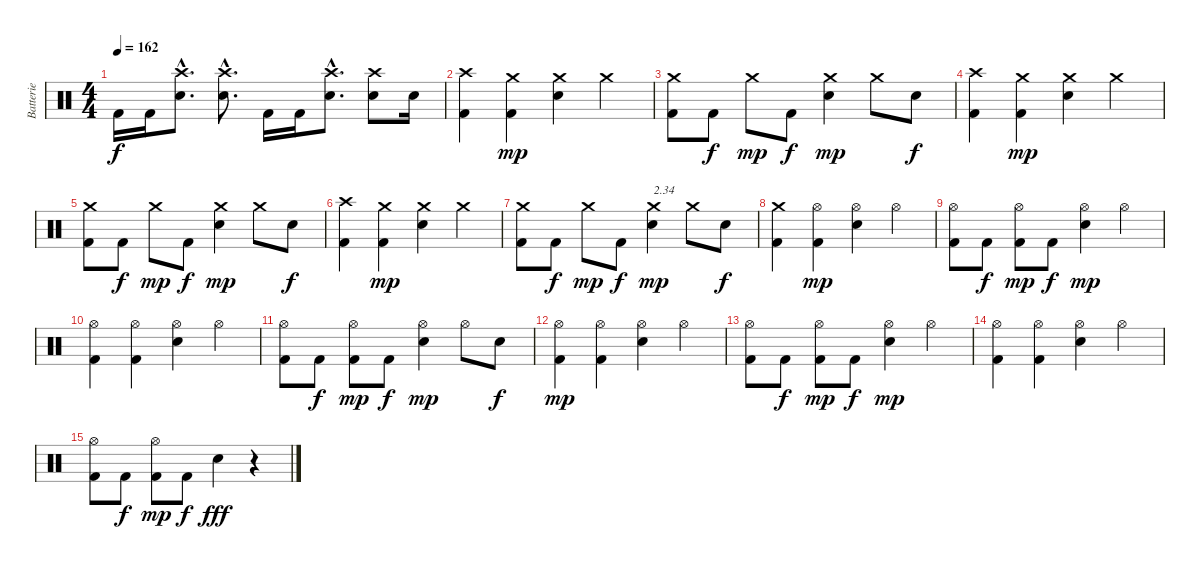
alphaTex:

\track ("Batterie" "Batterie") {instrument percussion}
\staff {score}
\articulation defaults
\ts (4 4)
\tempo 162
\clef neutral
\ks c "Kick (hit) 2".16{dy f} "Kick (hit) 2".16
("Electric Snare (hit)"{hac} "Crash high (hit)"{hac}).8{d} ("Electric Snare (hit)"{hac} "Crash high (hit)"{hac}).8{d} "Kick (hit) 2".16 "Kick (hit) 2".16 ("Electric Snare (hit)"{hac} "Crash high (hit)"{hac}).8{d} ("Electric Snare (hit)" "Crash high (hit)").8 "Electric Snare (hit)".16 |
("Kick (hit) 2" "Crash high (hit)").4 ("Kick (hit) 2" "Crash medium (hit)").4{dy mp} ("Electric Snare (hit)" "Crash medium (hit)").4 "Crash medium (hit)".4 |
("Kick (hit) 2" "Crash medium (hit)").8 "Kick (hit) 2".8{dy f} "Crash medium (hit)".8{dy mp} "Kick (hit) 2".8{dy f} ("Electric Snare (hit)" "Crash medium (hit)").4{dy mp} "Crash medium (hit)".8 "Electric Snare (hit)".8{dy f} |
("Kick (hit) 2" "Crash high (hit)").4 ("Kick (hit) 2" "Crash medium (hit)").4{dy mp} ("Electric Snare (hit)" "Crash medium (hit)").4 "Crash medium (hit)".4 |
("Kick (hit) 2" "Crash medium (hit)").8 "Kick (hit) 2".8{dy f} "Crash medium (hit)".8{dy mp} "Kick (hit) 2".8{dy f} ("Electric Snare (hit)" "Crash medium (hit)").4{dy mp} "Crash medium (hit)".8 "Electric Snare (hit)".8{dy f} |
("Kick (hit) 2" "Crash high (hit)").4 ("Kick (hit) 2" "Crash medium (hit)").4{dy mp} ("Electric Snare (hit)" "Crash medium (hit)").4 "Crash medium (hit)".4 |
("Kick (hit) 2" "Crash medium (hit)").8 "Kick (hit) 2".8{dy f} "Crash medium (hit)".8{dy mp} "Kick (hit) 2".8{dy f} ("Electric Snare (hit)" "Crash medium (hit)").4{txt "2.34" dy mp} "Crash medium (hit)".8 "Electric Snare (hit)".8{dy f} |
("Kick (hit) 2" "Crash medium (hit)").4 ("Kick (hit) 2" "Hi-Hat (open)").4{dy mp} ("Electric Snare (hit)" "Hi-Hat (open)").4 "Hi-Hat (open)".4 |
("Kick (hit) 2" "Hi-Hat (open)").8 "Kick (hit) 2".8{dy f} ("Kick (hit) 2" "Hi-Hat (open)").8{dy mp} "Kick (hit) 2".8{dy f} ("Electric Snare (hit)" "Hi-Hat (open)").4{dy mp} "Hi-Hat (open)".4 |
("Kick (hit) 2" "Hi-Hat (open)").4 ("Kick (hit) 2" "Hi-Hat (open)").4 ("Electric Snare (hit)" "Hi-Hat (open)").4 "Hi-Hat (open)".4 |
("Kick (hit) 2" "Hi-Hat (open)").8 "Kick (hit) 2".8{dy f} ("Kick (hit) 2" "Hi-Hat (open)").8{dy mp} "Kick (hit) 2".8{dy f} ("Electric Snare (hit)" "Hi-Hat (open)").4{dy mp} "Hi-Hat (open)".8 "Electric Snare (hit)".8{dy f} |
("Kick (hit) 2" "Hi-Hat (open)").4{dy mp} ("Kick (hit) 2" "Hi-Hat (open)").4 ("Electric Snare (hit)" "Hi-Hat (open)").4 "Hi-Hat (open)".4 |
("Kick (hit) 2" "Hi-Hat (open)").8 "Kick (hit) 2".8{dy f} ("Kick (hit) 2" "Hi-Hat (open)").8{dy mp} "Kick (hit) 2".8{dy f} ("Electric Snare (hit)" "Hi-Hat (open)").4{dy mp} "Hi-Hat (open)".4 |
("Kick (hit) 2" "Hi-Hat (open)").4 ("Kick (hit) 2" "Hi-Hat (open)").4 ("Electric Snare (hit)" "Hi-Hat (open)").4 "Hi-Hat (open)".4 |
("Kick (hit) 2" "Hi-Hat (open)").8 "Kick (hit) 2".8{dy f} ("Kick (hit) 2" "Hi-Hat (open)").8{dy mp} "Kick (hit) 2".8{dy f} "Electric Snare (hit)".4{dy fff} r.4
